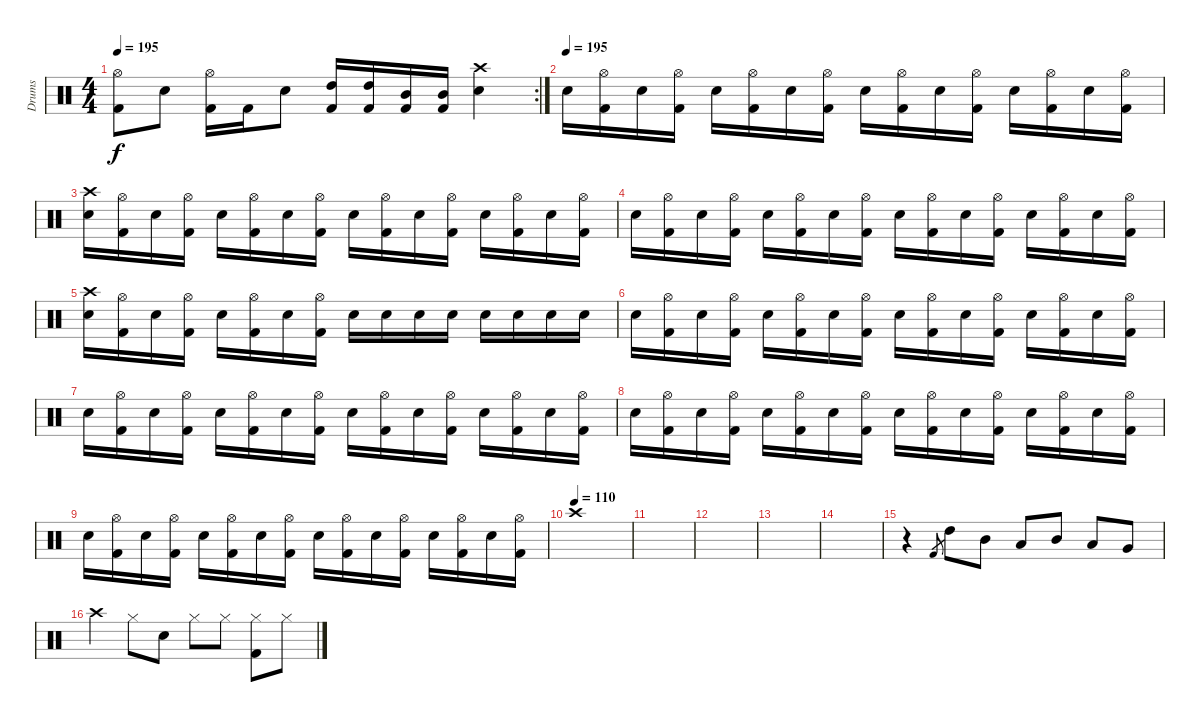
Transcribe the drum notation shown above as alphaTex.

\track ("Drums" "Drums") {instrument percussion}
\staff {score}
\articulation defaults
\rc 2
\ts (4 4)
\tempo 195
\clef neutral
\ks c
("Hi-Hat (open)" "Kick (hit) 2").8{dy f} "Snare (hit) 2".8 ("Hi-Hat (open)" "Kick (hit) 2").16 "Kick (hit) 2".16 "Snare (hit) 2".8 ("High Tom (hit)" "Kick (hit) 2").16 ("High Tom (hit)" "Kick (hit) 2").16 ("Mid Tom (hit)" "Kick (hit) 2").16 ("Mid Tom (hit)" "Kick (hit) 2").16 ("Crash high (hit)" "Snare (hit) 2").4 |
\tempo (195)
"Snare (hit) 2".16 ("Hi-Hat (open)" "Kick (hit) 2").16 "Snare (hit) 2".16 ("Hi-Hat (open)" "Kick (hit) 2").16 "Snare (hit) 2".16 ("Hi-Hat (open)" "Kick (hit) 2").16 "Snare (hit) 2".16 ("Hi-Hat (open)" "Kick (hit) 2").16 "Snare (hit) 2".16 ("Hi-Hat (open)" "Kick (hit) 2").16 "Snare (hit) 2".16 ("Hi-Hat (open)" "Kick (hit) 2").16 "Snare (hit) 2".16 ("Hi-Hat (open)" "Kick (hit) 2").16 "Snare (hit) 2".16 ("Hi-Hat (open)" "Kick (hit) 2").16 |
("Crash high (hit)" "Snare (hit) 2").16 ("Hi-Hat (open)" "Kick (hit) 2").16 "Snare (hit) 2".16 ("Hi-Hat (open)" "Kick (hit) 2").16 "Snare (hit) 2".16 ("Hi-Hat (open)" "Kick (hit) 2").16 "Snare (hit) 2".16 ("Hi-Hat (open)" "Kick (hit) 2").16 "Snare (hit) 2".16 ("Hi-Hat (open)" "Kick (hit) 2").16 "Snare (hit) 2".16 ("Hi-Hat (open)" "Kick (hit) 2").16 "Snare (hit) 2".16 ("Hi-Hat (open)" "Kick (hit) 2").16 "Snare (hit) 2".16 ("Hi-Hat (open)" "Kick (hit) 2").16 |
"Snare (hit) 2".16 ("Hi-Hat (open)" "Kick (hit) 2").16 "Snare (hit) 2".16 ("Hi-Hat (open)" "Kick (hit) 2").16 "Snare (hit) 2".16 ("Hi-Hat (open)" "Kick (hit) 2").16 "Snare (hit) 2".16 ("Hi-Hat (open)" "Kick (hit) 2").16 "Snare (hit) 2".16 ("Hi-Hat (open)" "Kick (hit) 2").16 "Snare (hit) 2".16 ("Hi-Hat (open)" "Kick (hit) 2").16 "Snare (hit) 2".16 ("Hi-Hat (open)" "Kick (hit) 2").16 "Snare (hit) 2".16 ("Hi-Hat (open)" "Kick (hit) 2").16 |
("Crash high (hit)" "Snare (hit) 2").16 ("Hi-Hat (open)" "Kick (hit) 2").16 "Snare (hit) 2".16 ("Hi-Hat (open)" "Kick (hit) 2").16 "Snare (hit) 2".16 ("Hi-Hat (open)" "Kick (hit) 2").16 "Snare (hit) 2".16 ("Hi-Hat (open)" "Kick (hit) 2").16 "Snare (hit) 2".16 "Snare (hit) 2".16 "Snare (hit) 2".16 "Snare (hit) 2".16 "Snare (hit) 2".16 "Snare (hit) 2".16 "Snare (hit) 2".16 "Snare (hit) 2".16 |
"Snare (hit) 2".16 ("Hi-Hat (open)" "Kick (hit) 2").16 "Snare (hit) 2".16 ("Hi-Hat (open)" "Kick (hit) 2").16 "Snare (hit) 2".16 ("Hi-Hat (open)" "Kick (hit) 2").16 "Snare (hit) 2".16 ("Hi-Hat (open)" "Kick (hit) 2").16 "Snare (hit) 2".16 ("Hi-Hat (open)" "Kick (hit) 2").16 "Snare (hit) 2".16 ("Hi-Hat (open)" "Kick (hit) 2").16 "Snare (hit) 2".16 ("Hi-Hat (open)" "Kick (hit) 2").16 "Snare (hit) 2".16 ("Hi-Hat (open)" "Kick (hit) 2").16 |
"Snare (hit) 2".16 ("Hi-Hat (open)" "Kick (hit) 2").16 "Snare (hit) 2".16 ("Hi-Hat (open)" "Kick (hit) 2").16 "Snare (hit) 2".16 ("Hi-Hat (open)" "Kick (hit) 2").16 "Snare (hit) 2".16 ("Hi-Hat (open)" "Kick (hit) 2").16 "Snare (hit) 2".16 ("Hi-Hat (open)" "Kick (hit) 2").16 "Snare (hit) 2".16 ("Hi-Hat (open)" "Kick (hit) 2").16 "Snare (hit) 2".16 ("Hi-Hat (open)" "Kick (hit) 2").16 "Snare (hit) 2".16 ("Hi-Hat (open)" "Kick (hit) 2").16 |
"Snare (hit) 2".16 ("Hi-Hat (open)" "Kick (hit) 2").16 "Snare (hit) 2".16 ("Hi-Hat (open)" "Kick (hit) 2").16 "Snare (hit) 2".16 ("Hi-Hat (open)" "Kick (hit) 2").16 "Snare (hit) 2".16 ("Hi-Hat (open)" "Kick (hit) 2").16 "Snare (hit) 2".16 ("Hi-Hat (open)" "Kick (hit) 2").16 "Snare (hit) 2".16 ("Hi-Hat (open)" "Kick (hit) 2").16 "Snare (hit) 2".16 ("Hi-Hat (open)" "Kick (hit) 2").16 "Snare (hit) 2".16 ("Hi-Hat (open)" "Kick (hit) 2").16 |
"Snare (hit) 2".16 ("Hi-Hat (open)" "Kick (hit) 2").16 "Snare (hit) 2".16 ("Hi-Hat (open)" "Kick (hit) 2").16 "Snare (hit) 2".16 ("Hi-Hat (open)" "Kick (hit) 2").16 "Snare (hit) 2".16 ("Hi-Hat (open)" "Kick (hit) 2").16 "Snare (hit) 2".16 ("Hi-Hat (open)" "Kick (hit) 2").16 "Snare (hit) 2".16 ("Hi-Hat (open)" "Kick (hit) 2").16 "Snare (hit) 2".16 ("Hi-Hat (open)" "Kick (hit) 2").16 "Snare (hit) 2".16 ("Hi-Hat (open)" "Kick (hit) 2").16 |
\tempo (110)
"Crash high (hit)".1 |
|
|
|
|
r.4 "Kick (hit) 2".8{gr} "High Tom (hit)".8 "Mid Tom (hit)".8 "Low Tom (hit)".8 "Mid Tom (hit)".8 "Low Tom (hit)".8 "Very Low Tom (hit)".8 |
"Crash high (hit)".4 "Hi-Hat (closed)".8 "Snare (hit) 2".8 "Hi-Hat (closed)".8 "Hi-Hat (closed)".8 ("Hi-Hat (closed)" "Kick (hit) 2").8 "Hi-Hat (closed)".8
